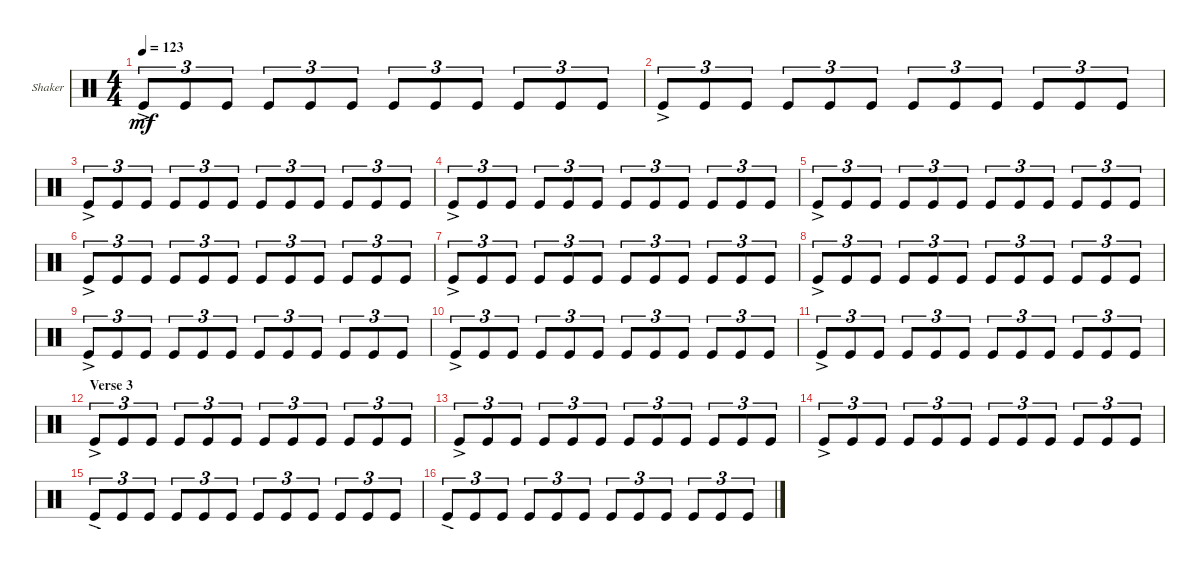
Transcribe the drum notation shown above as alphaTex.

\defaultSystemsLayout 4
\bracketExtendMode groupsimilarinstruments
\firstSystemTrackNameOrientation horizontal
\otherSystemsTrackNameOrientation horizontal
\track ("Shaker" "Shaker") {multiBarRest instrument percussion}
\staff {score}
\articulation defaults
\ts (4 4)
\tempo 123
\clef neutral
\ks c "Kick (hit)"{ac}.8{tu (3 2) dy mf} "Kick (hit)".8{tu (3 2)} "Kick (hit)".8{tu (3 2)} "Kick (hit)".8{tu (3 2)} "Kick (hit)".8{tu (3 2)} "Kick (hit)".8{tu (3 2)} "Kick (hit)".8{tu (3 2)} "Kick (hit)".8{tu (3 2)} "Kick (hit)".8{tu (3 2)} "Kick (hit)".8{tu (3 2)} "Kick (hit)".8{tu (3 2)} "Kick (hit)".8{tu (3 2)}
|
"Kick (hit)"{ac}.8{tu (3 2)} "Kick (hit)".8{tu (3 2)} "Kick (hit)".8{tu (3 2)} "Kick (hit)".8{tu (3 2)} "Kick (hit)".8{tu (3 2)} "Kick (hit)".8{tu (3 2)} "Kick (hit)".8{tu (3 2)} "Kick (hit)".8{tu (3 2)} "Kick (hit)".8{tu (3 2)} "Kick (hit)".8{tu (3 2)} "Kick (hit)".8{tu (3 2)} "Kick (hit)".8{tu (3 2)} |
"Kick (hit)"{ac}.8{tu (3 2)} "Kick (hit)".8{tu (3 2)} "Kick (hit)".8{tu (3 2)} "Kick (hit)".8{tu (3 2)} "Kick (hit)".8{tu (3 2)} "Kick (hit)".8{tu (3 2)} "Kick (hit)".8{tu (3 2)} "Kick (hit)".8{tu (3 2)} "Kick (hit)".8{tu (3 2)} "Kick (hit)".8{tu (3 2)} "Kick (hit)".8{tu (3 2)} "Kick (hit)".8{tu (3 2)} |
"Kick (hit)"{ac}.8{tu (3 2)} "Kick (hit)".8{tu (3 2)} "Kick (hit)".8{tu (3 2)} "Kick (hit)".8{tu (3 2)} "Kick (hit)".8{tu (3 2)} "Kick (hit)".8{tu (3 2)} "Kick (hit)".8{tu (3 2)} "Kick (hit)".8{tu (3 2)} "Kick (hit)".8{tu (3 2)} "Kick (hit)".8{tu (3 2)} "Kick (hit)".8{tu (3 2)} "Kick (hit)".8{tu (3 2)} |
"Kick (hit)"{ac}.8{tu (3 2)} "Kick (hit)".8{tu (3 2)} "Kick (hit)".8{tu (3 2)} "Kick (hit)".8{tu (3 2)} "Kick (hit)".8{tu (3 2)} "Kick (hit)".8{tu (3 2)} "Kick (hit)".8{tu (3 2)} "Kick (hit)".8{tu (3 2)} "Kick (hit)".8{tu (3 2)} "Kick (hit)".8{tu (3 2)} "Kick (hit)".8{tu (3 2)} "Kick (hit)".8{tu (3 2)} |
"Kick (hit)"{ac}.8{tu (3 2)} "Kick (hit)".8{tu (3 2)} "Kick (hit)".8{tu (3 2)} "Kick (hit)".8{tu (3 2)} "Kick (hit)".8{tu (3 2)} "Kick (hit)".8{tu (3 2)} "Kick (hit)".8{tu (3 2)} "Kick (hit)".8{tu (3 2)} "Kick (hit)".8{tu (3 2)} "Kick (hit)".8{tu (3 2)} "Kick (hit)".8{tu (3 2)} "Kick (hit)".8{tu (3 2)} |
"Kick (hit)"{ac}.8{tu (3 2)} "Kick (hit)".8{tu (3 2)} "Kick (hit)".8{tu (3 2)} "Kick (hit)".8{tu (3 2)} "Kick (hit)".8{tu (3 2)} "Kick (hit)".8{tu (3 2)} "Kick (hit)".8{tu (3 2)} "Kick (hit)".8{tu (3 2)} "Kick (hit)".8{tu (3 2)} "Kick (hit)".8{tu (3 2)} "Kick (hit)".8{tu (3 2)} "Kick (hit)".8{tu (3 2)} |
"Kick (hit)"{ac}.8{tu (3 2)} "Kick (hit)".8{tu (3 2)} "Kick (hit)".8{tu (3 2)} "Kick (hit)".8{tu (3 2)} "Kick (hit)".8{tu (3 2)} "Kick (hit)".8{tu (3 2)} "Kick (hit)".8{tu (3 2)} "Kick (hit)".8{tu (3 2)} "Kick (hit)".8{tu (3 2)} "Kick (hit)".8{tu (3 2)} "Kick (hit)".8{tu (3 2)} "Kick (hit)".8{tu (3 2)} |
"Kick (hit)"{ac}.8{tu (3 2)} "Kick (hit)".8{tu (3 2)} "Kick (hit)".8{tu (3 2)} "Kick (hit)".8{tu (3 2)} "Kick (hit)".8{tu (3 2)} "Kick (hit)".8{tu (3 2)} "Kick (hit)".8{tu (3 2)} "Kick (hit)".8{tu (3 2)} "Kick (hit)".8{tu (3 2)} "Kick (hit)".8{tu (3 2)} "Kick (hit)".8{tu (3 2)} "Kick (hit)".8{tu (3 2)} |
"Kick (hit)"{ac}.8{tu (3 2)} "Kick (hit)".8{tu (3 2)} "Kick (hit)".8{tu (3 2)} "Kick (hit)".8{tu (3 2)} "Kick (hit)".8{tu (3 2)} "Kick (hit)".8{tu (3 2)} "Kick (hit)".8{tu (3 2)} "Kick (hit)".8{tu (3 2)} "Kick (hit)".8{tu (3 2)} "Kick (hit)".8{tu (3 2)} "Kick (hit)".8{tu (3 2)} "Kick (hit)".8{tu (3 2)} |
"Kick (hit)"{ac}.8{tu (3 2)} "Kick (hit)".8{tu (3 2)} "Kick (hit)".8{tu (3 2)} "Kick (hit)".8{tu (3 2)} "Kick (hit)".8{tu (3 2)} "Kick (hit)".8{tu (3 2)} "Kick (hit)".8{tu (3 2)} "Kick (hit)".8{tu (3 2)} "Kick (hit)".8{tu (3 2)} "Kick (hit)".8{tu (3 2)} "Kick (hit)".8{tu (3 2)} "Kick (hit)".8{tu (3 2)} |
\section ("" "Verse 3")
"Kick (hit)"{ac}.8{tu (3 2)} "Kick (hit)".8{tu (3 2)} "Kick (hit)".8{tu (3 2)} "Kick (hit)".8{tu (3 2)} "Kick (hit)".8{tu (3 2)} "Kick (hit)".8{tu (3 2)} "Kick (hit)".8{tu (3 2)} "Kick (hit)".8{tu (3 2)} "Kick (hit)".8{tu (3 2)} "Kick (hit)".8{tu (3 2)} "Kick (hit)".8{tu (3 2)} "Kick (hit)".8{tu (3 2)} |
"Kick (hit)"{ac}.8{tu (3 2)} "Kick (hit)".8{tu (3 2)} "Kick (hit)".8{tu (3 2)} "Kick (hit)".8{tu (3 2)} "Kick (hit)".8{tu (3 2)} "Kick (hit)".8{tu (3 2)} "Kick (hit)".8{tu (3 2)} "Kick (hit)".8{tu (3 2)} "Kick (hit)".8{tu (3 2)} "Kick (hit)".8{tu (3 2)} "Kick (hit)".8{tu (3 2)} "Kick (hit)".8{tu (3 2)} |
"Kick (hit)"{ac}.8{tu (3 2)} "Kick (hit)".8{tu (3 2)} "Kick (hit)".8{tu (3 2)} "Kick (hit)".8{tu (3 2)} "Kick (hit)".8{tu (3 2)} "Kick (hit)".8{tu (3 2)} "Kick (hit)".8{tu (3 2)} "Kick (hit)".8{tu (3 2)} "Kick (hit)".8{tu (3 2)} "Kick (hit)".8{tu (3 2)} "Kick (hit)".8{tu (3 2)} "Kick (hit)".8{tu (3 2)} |
"Kick (hit)"{ac}.8{tu (3 2)} "Kick (hit)".8{tu (3 2)} "Kick (hit)".8{tu (3 2)} "Kick (hit)".8{tu (3 2)} "Kick (hit)".8{tu (3 2)} "Kick (hit)".8{tu (3 2)} "Kick (hit)".8{tu (3 2)} "Kick (hit)".8{tu (3 2)} "Kick (hit)".8{tu (3 2)} "Kick (hit)".8{tu (3 2)} "Kick (hit)".8{tu (3 2)} "Kick (hit)".8{tu (3 2)} |
"Kick (hit)"{ac}.8{tu (3 2)} "Kick (hit)".8{tu (3 2)} "Kick (hit)".8{tu (3 2)} "Kick (hit)".8{tu (3 2)} "Kick (hit)".8{tu (3 2)} "Kick (hit)".8{tu (3 2)} "Kick (hit)".8{tu (3 2)} "Kick (hit)".8{tu (3 2)} "Kick (hit)".8{tu (3 2)} "Kick (hit)".8{tu (3 2)} "Kick (hit)".8{tu (3 2)} "Kick (hit)".8{tu (3 2)}
